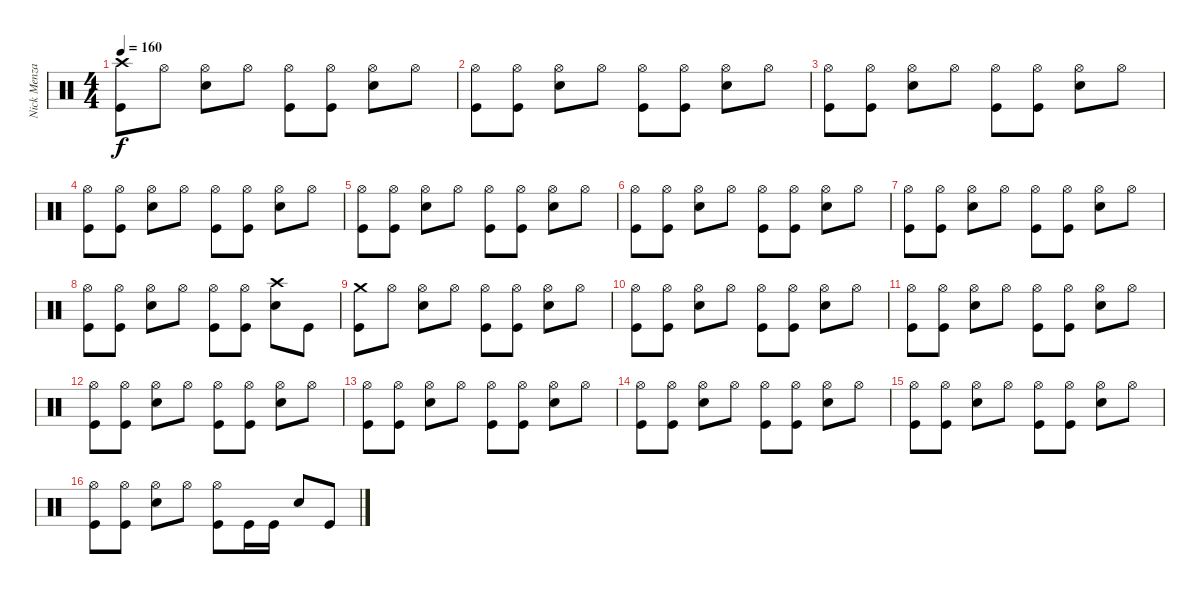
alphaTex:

\track ("Nick Menza" "Nick Menza") {instrument percussion}
\staff {score}
\articulation defaults
\ts (4 4)
\tempo 160
\clef neutral
\ks c
("Crash high (hit)" "Kick (hit)").8{dy f} "Hi-Hat (open)".8 ("Hi-Hat (open)" "Snare (hit) 2").8 "Hi-Hat (open)".8 ("Hi-Hat (open)" "Kick (hit)").8 ("Hi-Hat (open)" "Kick (hit)").8 ("Hi-Hat (open)" "Snare (hit) 2").8 "Hi-Hat (open)".8 |
("Hi-Hat (open)" "Kick (hit)").8 ("Hi-Hat (open)" "Kick (hit)").8 ("Hi-Hat (open)" "Snare (hit) 2").8 "Hi-Hat (open)".8 ("Hi-Hat (open)" "Kick (hit)").8 ("Hi-Hat (open)" "Kick (hit)").8 ("Hi-Hat (open)" "Snare (hit) 2").8 "Hi-Hat (open)".8 |
("Hi-Hat (open)" "Kick (hit)").8 ("Hi-Hat (open)" "Kick (hit)").8 ("Hi-Hat (open)" "Snare (hit) 2").8 "Hi-Hat (open)".8 ("Hi-Hat (open)" "Kick (hit)").8 ("Hi-Hat (open)" "Kick (hit)").8 ("Hi-Hat (open)" "Snare (hit) 2").8 "Hi-Hat (open)".8 |
("Hi-Hat (open)" "Kick (hit)").8 ("Hi-Hat (open)" "Kick (hit)").8 ("Hi-Hat (open)" "Snare (hit) 2").8 "Hi-Hat (open)".8 ("Hi-Hat (open)" "Kick (hit)").8 ("Hi-Hat (open)" "Kick (hit)").8 ("Hi-Hat (open)" "Snare (hit) 2").8 "Hi-Hat (open)".8 |
("Hi-Hat (open)" "Kick (hit)").8 ("Hi-Hat (open)" "Kick (hit)").8 ("Hi-Hat (open)" "Snare (hit) 2").8 "Hi-Hat (open)".8 ("Hi-Hat (open)" "Kick (hit)").8 ("Hi-Hat (open)" "Kick (hit)").8 ("Hi-Hat (open)" "Snare (hit) 2").8 "Hi-Hat (open)".8 |
("Hi-Hat (open)" "Kick (hit)").8 ("Hi-Hat (open)" "Kick (hit)").8 ("Hi-Hat (open)" "Snare (hit) 2").8 "Hi-Hat (open)".8 ("Hi-Hat (open)" "Kick (hit)").8 ("Hi-Hat (open)" "Kick (hit)").8 ("Hi-Hat (open)" "Snare (hit) 2").8 "Hi-Hat (open)".8 |
("Hi-Hat (open)" "Kick (hit)").8 ("Hi-Hat (open)" "Kick (hit)").8 ("Hi-Hat (open)" "Snare (hit) 2").8 "Hi-Hat (open)".8 ("Hi-Hat (open)" "Kick (hit)").8 ("Hi-Hat (open)" "Kick (hit)").8 ("Hi-Hat (open)" "Snare (hit) 2").8 "Hi-Hat (open)".8 |
("Hi-Hat (open)" "Kick (hit)").8 ("Hi-Hat (open)" "Kick (hit)").8 ("Hi-Hat (open)" "Snare (hit) 2").8 "Hi-Hat (open)".8 ("Hi-Hat (open)" "Kick (hit)").8 ("Hi-Hat (open)" "Kick (hit)").8 ("Crash high (hit)" "Snare (hit) 2").8 "Kick (hit)".8 |
("Crash medium (hit)" "Kick (hit)").8 "Hi-Hat (open)".8 ("Hi-Hat (open)" "Snare (hit) 2").8 "Hi-Hat (open)".8 ("Hi-Hat (open)" "Kick (hit)").8 ("Hi-Hat (open)" "Kick (hit)").8 ("Hi-Hat (open)" "Snare (hit) 2").8 "Hi-Hat (open)".8 |
("Hi-Hat (open)" "Kick (hit)").8 ("Hi-Hat (open)" "Kick (hit)").8 ("Hi-Hat (open)" "Snare (hit) 2").8 "Hi-Hat (open)".8 ("Hi-Hat (open)" "Kick (hit)").8 ("Hi-Hat (open)" "Kick (hit)").8 ("Hi-Hat (open)" "Snare (hit) 2").8 "Hi-Hat (open)".8 |
("Hi-Hat (open)" "Kick (hit)").8 ("Hi-Hat (open)" "Kick (hit)").8 ("Hi-Hat (open)" "Snare (hit) 2").8 "Hi-Hat (open)".8 ("Hi-Hat (open)" "Kick (hit)").8 ("Hi-Hat (open)" "Kick (hit)").8 ("Hi-Hat (open)" "Snare (hit) 2").8 "Hi-Hat (open)".8 |
("Hi-Hat (open)" "Kick (hit)").8 ("Hi-Hat (open)" "Kick (hit)").8 ("Hi-Hat (open)" "Snare (hit) 2").8 "Hi-Hat (open)".8 ("Hi-Hat (open)" "Kick (hit)").8 ("Hi-Hat (open)" "Kick (hit)").8 ("Hi-Hat (open)" "Snare (hit) 2").8 "Hi-Hat (open)".8 |
("Hi-Hat (open)" "Kick (hit)").8 ("Hi-Hat (open)" "Kick (hit)").8 ("Hi-Hat (open)" "Snare (hit) 2").8 "Hi-Hat (open)".8 ("Hi-Hat (open)" "Kick (hit)").8 ("Hi-Hat (open)" "Kick (hit)").8 ("Hi-Hat (open)" "Snare (hit) 2").8 "Hi-Hat (open)".8 |
("Hi-Hat (open)" "Kick (hit)").8 ("Hi-Hat (open)" "Kick (hit)").8 ("Hi-Hat (open)" "Snare (hit) 2").8 "Hi-Hat (open)".8 ("Hi-Hat (open)" "Kick (hit)").8 ("Hi-Hat (open)" "Kick (hit)").8 ("Hi-Hat (open)" "Snare (hit) 2").8 "Hi-Hat (open)".8 |
("Hi-Hat (open)" "Kick (hit)").8 ("Hi-Hat (open)" "Kick (hit)").8 ("Hi-Hat (open)" "Snare (hit) 2").8 "Hi-Hat (open)".8 ("Hi-Hat (open)" "Kick (hit)").8 ("Hi-Hat (open)" "Kick (hit)").8 ("Hi-Hat (open)" "Snare (hit) 2").8 "Hi-Hat (open)".8 |
("Hi-Hat (open)" "Kick (hit)").8 ("Hi-Hat (open)" "Kick (hit)").8 ("Hi-Hat (open)" "Snare (hit) 2").8 "Hi-Hat (open)".8 ("Hi-Hat (open)" "Kick (hit)").8 "Kick (hit)".16 "Kick (hit)".16 "Snare (hit) 2".8 "Kick (hit)".8
